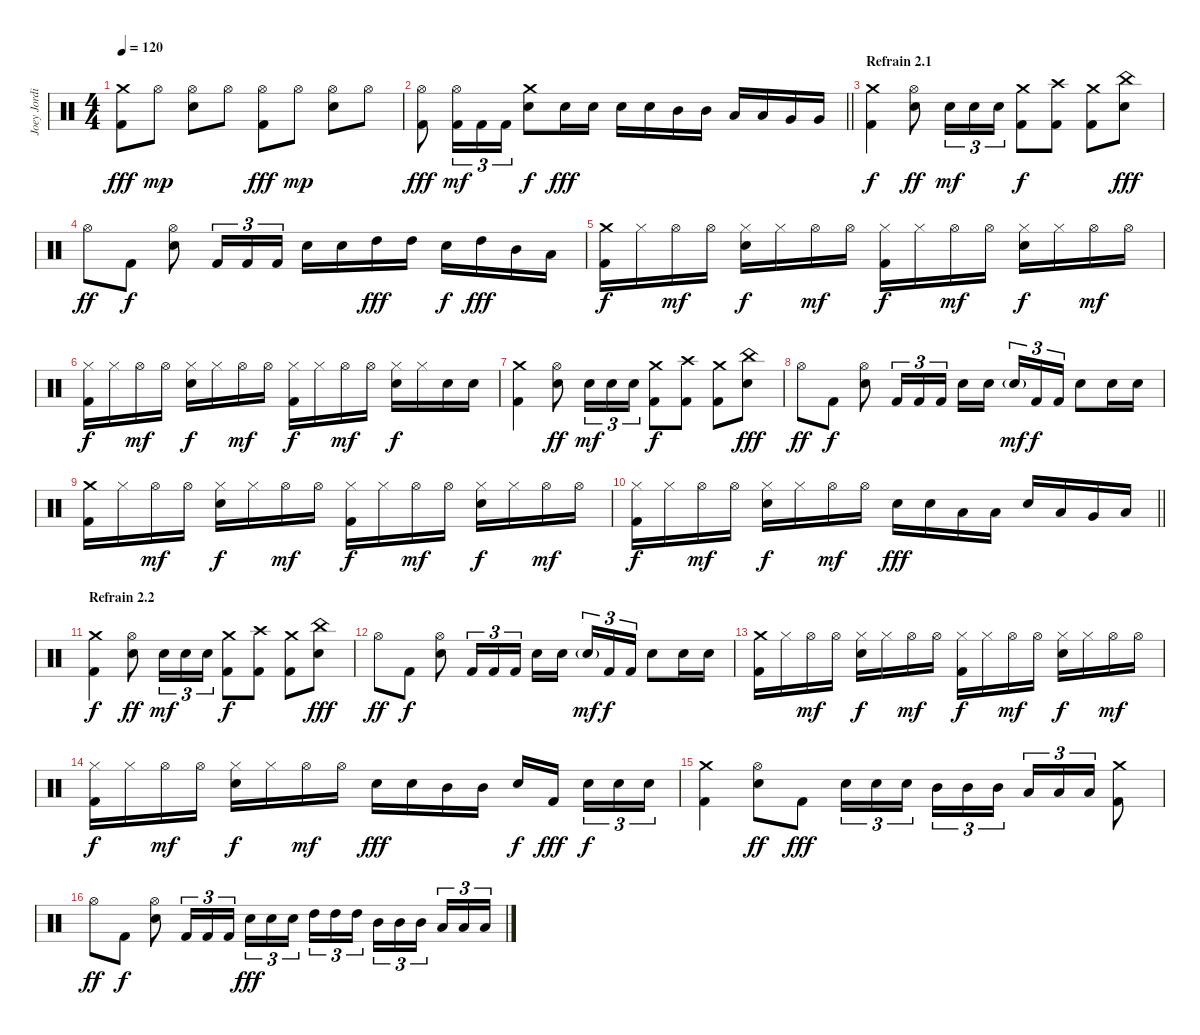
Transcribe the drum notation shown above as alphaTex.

\track ("Joey Jordison" "Joey Jordi") {instrument percussion}
\staff {score}
\articulation defaults
\ts (4 4)
\tempo 120
\clef neutral
\ks c
("Crash medium (hit)" "Kick (hit) 2").8{dy fff} "Hi-Hat (open)".8{dy mp} ("Hi-Hat (open)" "Electric Snare (hit)").8 "Hi-Hat (open)".8 ("Hi-Hat (open)" "Kick (hit) 2").8{dy fff} "Hi-Hat (open)".8{dy mp} ("Hi-Hat (open)" "Electric Snare (hit)").8 "Hi-Hat (open)".8 |
\barLineRight lightlight
("Hi-Hat (open)" "Kick (hit) 2").8{dy fff} ("Hi-Hat (open)" "Kick (hit) 2").16{tu (3 2) dy mf} "Kick (hit) 2".16{tu (3 2)} "Kick (hit) 2".16{tu (3 2)} ("Crash medium (hit)" "Electric Snare (hit)").8{dy f} "Electric Snare (hit)".16{dy fff} "Electric Snare (hit)".16 "Electric Snare (hit)".16 "Electric Snare (hit)".16 "Mid Tom (hit)".16 "Mid Tom (hit)".16 "Low Tom (hit)".16 "Low Tom (hit)".16 "Very Low Tom (hit)".16 "Very Low Tom (hit)".16 |
\section ("" "Refrain 2.1")
("Crash medium (hit)" "Kick (hit) 2").4{dy f} ("Hi-Hat (open)" "Electric Snare (hit)").8{dy ff} "Electric Snare (hit)".16{tu (3 2) dy mf} "Electric Snare (hit)".16{tu (3 2)} "Electric Snare (hit)".16{tu (3 2)} ("Crash medium (hit)" "Kick (hit) 2").8{dy f} ("Crash high (hit)" "Kick (hit) 2").8 ("Crash medium (hit)" "Kick (hit) 2").8 ("China (hit)" "Electric Snare (hit)").8{dy fff} |
"Hi-Hat (open)".8{dy ff} "Kick (hit) 2".8{dy f} ("Hi-Hat (open)" "Electric Snare (hit)").8 "Kick (hit) 2".16{tu (3 2)} "Kick (hit) 2".16{tu (3 2)} "Kick (hit) 2".16{tu (3 2)} "Electric Snare (hit)".16 "Electric Snare (hit)".16 "High Tom (hit)".16{dy fff} "High Tom (hit)".16 "Electric Snare (hit)".16{dy f} "High Tom (hit)".16{dy fff} "Mid Tom (hit)".16 "Low Tom (hit)".16 |
("Crash medium (hit)" "Kick (hit) 2").16{dy f} "Hi-Hat (closed)".16 "Hi-Hat (open)".16{dy mf} "Hi-Hat (open)".16 ("Hi-Hat (closed)" "Electric Snare (hit)").16{dy f} "Hi-Hat (closed)".16 "Hi-Hat (open)".16{dy mf} "Hi-Hat (open)".16 ("Hi-Hat (closed)" "Kick (hit) 2").16{dy f} "Hi-Hat (closed)".16 "Hi-Hat (open)".16{dy mf} "Hi-Hat (open)".16 ("Hi-Hat (closed)" "Electric Snare (hit)").16{dy f} "Hi-Hat (closed)".16 "Hi-Hat (open)".16{dy mf} "Hi-Hat (open)".16 |
("Hi-Hat (closed)" "Kick (hit) 2").16{dy f} "Hi-Hat (closed)".16 "Hi-Hat (open)".16{dy mf} "Hi-Hat (open)".16 ("Hi-Hat (closed)" "Electric Snare (hit)").16{dy f} "Hi-Hat (closed)".16 "Hi-Hat (open)".16{dy mf} "Hi-Hat (open)".16 ("Hi-Hat (closed)" "Kick (hit) 2").16{dy f} "Hi-Hat (closed)".16 "Hi-Hat (open)".16{dy mf} "Hi-Hat (open)".16 ("Hi-Hat (closed)" "Electric Snare (hit)").16{dy f} "Hi-Hat (closed)".16 "Electric Snare (hit)".16 "Electric Snare (hit)".16 |
("Crash medium (hit)" "Kick (hit) 2").4 ("Hi-Hat (open)" "Electric Snare (hit)").8{dy ff} "Electric Snare (hit)".16{tu (3 2) dy mf} "Electric Snare (hit)".16{tu (3 2)} "Electric Snare (hit)".16{tu (3 2)} ("Crash medium (hit)" "Kick (hit) 2").8{dy f} ("Crash high (hit)" "Kick (hit) 2").8 ("Crash medium (hit)" "Kick (hit) 2").8 ("China (hit)" "Electric Snare (hit)").8{dy fff} |
"Hi-Hat (open)".8{dy ff} "Kick (hit) 2".8{dy f} ("Hi-Hat (open)" "Electric Snare (hit)").8 "Kick (hit) 2".16{tu (3 2)} "Kick (hit) 2".16{tu (3 2)} "Kick (hit) 2".16{tu (3 2)} "Electric Snare (hit)".16 "Electric Snare (hit)".16{beam splitsecondary} "Electric Snare (hit)"{g}.16{tu (3 2) dy mf} "Kick (hit) 2".16{tu (3 2) dy f} "Kick (hit) 2".16{tu (3 2)} "Electric Snare (hit)".8 "Electric Snare (hit)".16 "Electric Snare (hit)".16 |
("Crash medium (hit)" "Kick (hit) 2").16 "Hi-Hat (closed)".16 "Hi-Hat (open)".16{dy mf} "Hi-Hat (open)".16 ("Hi-Hat (closed)" "Electric Snare (hit)").16{dy f} "Hi-Hat (closed)".16 "Hi-Hat (open)".16{dy mf} "Hi-Hat (open)".16 ("Hi-Hat (closed)" "Kick (hit) 2").16{dy f} "Hi-Hat (closed)".16 "Hi-Hat (open)".16{dy mf} "Hi-Hat (open)".16 ("Hi-Hat (closed)" "Electric Snare (hit)").16{dy f} "Hi-Hat (closed)".16 "Hi-Hat (open)".16{dy mf} "Hi-Hat (open)".16 |
\barLineRight lightlight
("Hi-Hat (closed)" "Kick (hit) 2").16{dy f} "Hi-Hat (closed)".16 "Hi-Hat (open)".16{dy mf} "Hi-Hat (open)".16 ("Hi-Hat (closed)" "Electric Snare (hit)").16{dy f} "Hi-Hat (closed)".16 "Hi-Hat (open)".16{dy mf} "Hi-Hat (open)".16 "Electric Snare (hit)".16{dy fff} "Electric Snare (hit)".16 "Low Tom (hit)".16 "Low Tom (hit)".16 "Electric Snare (hit)".16 "Low Tom (hit)".16 "Very Low Tom (hit)".16 "Low Floor Tom (hit)".16 |
\section ("" "Refrain 2.2")
("Crash medium (hit)" "Kick (hit) 2").4{dy f} ("Hi-Hat (open)" "Electric Snare (hit)").8{dy ff} "Electric Snare (hit)".16{tu (3 2) dy mf} "Electric Snare (hit)".16{tu (3 2)} "Electric Snare (hit)".16{tu (3 2)} ("Crash medium (hit)" "Kick (hit) 2").8{dy f} ("Crash high (hit)" "Kick (hit) 2").8 ("Crash medium (hit)" "Kick (hit) 2").8 ("China (hit)" "Electric Snare (hit)").8{dy fff} |
"Hi-Hat (open)".8{dy ff} "Kick (hit) 2".8{dy f} ("Hi-Hat (open)" "Electric Snare (hit)").8 "Kick (hit) 2".16{tu (3 2)} "Kick (hit) 2".16{tu (3 2)} "Kick (hit) 2".16{tu (3 2)} "Electric Snare (hit)".16 "Electric Snare (hit)".16{beam splitsecondary} "Electric Snare (hit)"{g}.16{tu (3 2) dy mf} "Kick (hit) 2".16{tu (3 2) dy f} "Kick (hit) 2".16{tu (3 2)} "Electric Snare (hit)".8 "Electric Snare (hit)".16 "Electric Snare (hit)".16 |
("Crash medium (hit)" "Kick (hit) 2").16 "Hi-Hat (closed)".16 "Hi-Hat (open)".16{dy mf} "Hi-Hat (open)".16 ("Hi-Hat (closed)" "Electric Snare (hit)").16{dy f} "Hi-Hat (closed)".16 "Hi-Hat (open)".16{dy mf} "Hi-Hat (open)".16 ("Hi-Hat (closed)" "Kick (hit) 2").16{dy f} "Hi-Hat (closed)".16 "Hi-Hat (open)".16{dy mf} "Hi-Hat (open)".16 ("Hi-Hat (closed)" "Electric Snare (hit)").16{dy f} "Hi-Hat (closed)".16 "Hi-Hat (open)".16{dy mf} "Hi-Hat (open)".16 |
("Hi-Hat (closed)" "Kick (hit) 2").16{dy f} "Hi-Hat (closed)".16 "Hi-Hat (open)".16{dy mf} "Hi-Hat (open)".16 ("Hi-Hat (closed)" "Electric Snare (hit)").16{dy f} "Hi-Hat (closed)".16 "Hi-Hat (open)".16{dy mf} "Hi-Hat (open)".16 "Electric Snare (hit)".16{dy fff} "Electric Snare (hit)".16 "Mid Tom (hit)".16 "Mid Tom (hit)".16 "Electric Snare (hit)".16{dy f} "Kick (hit) 2".16{dy fff beam splitsecondary} "Electric Snare (hit)".16{tu (3 2) dy f} "Electric Snare (hit)".16{tu (3 2)} "Electric Snare (hit)".16{tu (3 2)} |
("Crash medium (hit)" "Kick (hit) 2").4 ("Hi-Hat (open)" "Electric Snare (hit)").8{dy ff} "Kick (hit) 2".8{dy fff} "Electric Snare (hit)".16{tu (3 2)} "Electric Snare (hit)".16{tu (3 2)} "Electric Snare (hit)".16{tu (3 2) beam splitsecondary} "Mid Tom (hit)".16{tu (3 2)} "Mid Tom (hit)".16{tu (3 2)} "Mid Tom (hit)".16{tu (3 2)} "Low Tom (hit)".16{tu (3 2)} "Low Tom (hit)".16{tu (3 2)} "Low Tom (hit)".16{tu (3 2)} ("Crash medium (hit)" "Kick (hit) 2").8 |
"Hi-Hat (open)".8{dy ff} "Kick (hit) 2".8{dy f} ("Hi-Hat (open)" "Electric Snare (hit)").8 "Kick (hit) 2".16{tu (3 2)} "Kick (hit) 2".16{tu (3 2)} "Kick (hit) 2".16{tu (3 2)} "Electric Snare (hit)".16{tu (3 2) dy fff} "Electric Snare (hit)".16{tu (3 2)} "Electric Snare (hit)".16{tu (3 2) beam splitsecondary} "High Tom (hit)".16{tu (3 2)} "High Tom (hit)".16{tu (3 2)} "High Tom (hit)".16{tu (3 2)} "Mid Tom (hit)".16{tu (3 2)} "Mid Tom (hit)".16{tu (3 2)} "Mid Tom (hit)".16{tu (3 2) beam splitsecondary} "Low Tom (hit)".16{tu (3 2)} "Low Tom (hit)".16{tu (3 2)} "Low Tom (hit)".16{tu (3 2)}
